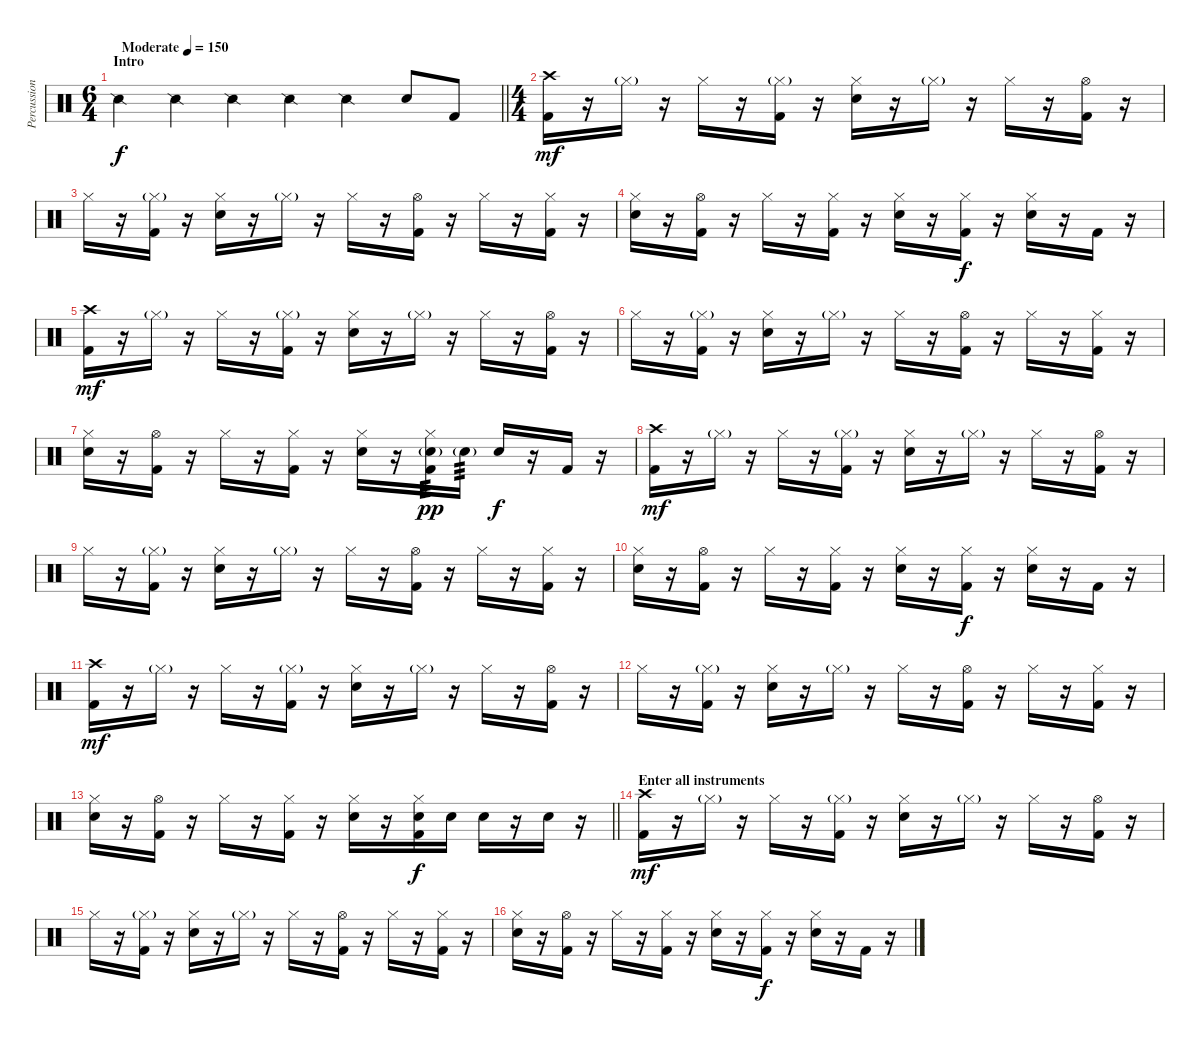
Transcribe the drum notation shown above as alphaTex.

\track ("Percussion" "Percussion") {instrument percussion}
\staff {score}
\articulation defaults
\ts (6 4)
\section ("" "Intro")
\tempo (150 "Moderate")
\clef neutral
\barLineRight lightlight
\ks c "Snare (side stick) 2".4{dy f} "Snare (side stick) 2".4 "Snare (side stick) 2".4 "Snare (side stick) 2".4 "Snare (side stick) 2".4 "Snare (hit) 2".8 "Kick (hit) 2".8
|
\ts (4 4)
("Crash high (hit)" "Kick (hit) 2").16{dy mf} r.16 "Hi-Hat (closed)"{g}.16 r.16 "Hi-Hat (closed)".16 r.16 ("Hi-Hat (closed)"{g} "Kick (hit) 2").16 r.16 ("Hi-Hat (closed)" "Snare (hit) 2").16 r.16 "Hi-Hat (closed)"{g}.16 r.16 "Hi-Hat (closed)".16 r.16 ("Hi-Hat (open)" "Kick (hit) 2").16 r.16 |
"Hi-Hat (closed)".16 r.16 ("Hi-Hat (closed)"{g} "Kick (hit) 2").16 r.16 ("Hi-Hat (closed)" "Snare (hit) 2").16 r.16 "Hi-Hat (closed)"{g}.16 r.16 "Hi-Hat (closed)".16 r.16 ("Hi-Hat (open)" "Kick (hit) 2").16 r.16 "Hi-Hat (closed)".16 r.16 ("Hi-Hat (closed)" "Kick (hit) 2").16 r.16 |
("Hi-Hat (closed)" "Snare (hit) 2").16 r.16 ("Hi-Hat (open)" "Kick (hit) 2").16 r.16 "Hi-Hat (closed)".16 r.16 ("Hi-Hat (closed)" "Kick (hit) 2").16 r.16 ("Hi-Hat (closed)" "Snare (hit) 2").16 r.16 ("Hi-Hat (closed)" "Kick (hit) 2").16{dy f} r.16 ("Hi-Hat (closed)" "Snare (hit) 2").16 r.16 "Kick (hit) 2".16 r.16 |
("Crash high (hit)" "Kick (hit) 2").16{dy mf} r.16 "Hi-Hat (closed)"{g}.16 r.16 "Hi-Hat (closed)".16 r.16 ("Hi-Hat (closed)"{g} "Kick (hit) 2").16 r.16 ("Hi-Hat (closed)" "Snare (hit) 2").16 r.16 "Hi-Hat (closed)"{g}.16 r.16 "Hi-Hat (closed)".16 r.16 ("Hi-Hat (open)" "Kick (hit) 2").16 r.16 |
"Hi-Hat (closed)".16 r.16 ("Hi-Hat (closed)"{g} "Kick (hit) 2").16 r.16 ("Hi-Hat (closed)" "Snare (hit) 2").16 r.16 "Hi-Hat (closed)"{g}.16 r.16 "Hi-Hat (closed)".16 r.16 ("Hi-Hat (open)" "Kick (hit) 2").16 r.16 "Hi-Hat (closed)".16 r.16 ("Hi-Hat (closed)" "Kick (hit) 2").16 r.16 |
("Hi-Hat (closed)" "Snare (hit) 2").16 r.16 ("Hi-Hat (open)" "Kick (hit) 2").16 r.16 "Hi-Hat (closed)".16 r.16 ("Hi-Hat (closed)" "Kick (hit) 2").16 r.16 ("Hi-Hat (closed)" "Snare (hit) 2").16 r.16 ("Hi-Hat (closed)" "Snare (hit) 2"{g} "Kick (hit) 2").16{tp 3 dy pp} "Snare (hit) 2"{g}.16{tp 3} "Snare (hit) 2".16{dy f} r.16 "Kick (hit) 2".16 r.16 |
("Crash high (hit)" "Kick (hit) 2").16{dy mf} r.16 "Hi-Hat (closed)"{g}.16 r.16 "Hi-Hat (closed)".16 r.16 ("Hi-Hat (closed)"{g} "Kick (hit) 2").16 r.16 ("Hi-Hat (closed)" "Snare (hit) 2").16 r.16 "Hi-Hat (closed)"{g}.16 r.16 "Hi-Hat (closed)".16 r.16 ("Hi-Hat (open)" "Kick (hit) 2").16 r.16 |
"Hi-Hat (closed)".16 r.16 ("Hi-Hat (closed)"{g} "Kick (hit) 2").16 r.16 ("Hi-Hat (closed)" "Snare (hit) 2").16 r.16 "Hi-Hat (closed)"{g}.16 r.16 "Hi-Hat (closed)".16 r.16 ("Hi-Hat (open)" "Kick (hit) 2").16 r.16 "Hi-Hat (closed)".16 r.16 ("Hi-Hat (closed)" "Kick (hit) 2").16 r.16 |
("Hi-Hat (closed)" "Snare (hit) 2").16 r.16 ("Hi-Hat (open)" "Kick (hit) 2").16 r.16 "Hi-Hat (closed)".16 r.16 ("Hi-Hat (closed)" "Kick (hit) 2").16 r.16 ("Hi-Hat (closed)" "Snare (hit) 2").16 r.16 ("Hi-Hat (closed)" "Kick (hit) 2").16{dy f} r.16 ("Hi-Hat (closed)" "Snare (hit) 2").16 r.16 "Kick (hit) 2".16 r.16 |
("Crash high (hit)" "Kick (hit) 2").16{dy mf} r.16 "Hi-Hat (closed)"{g}.16 r.16 "Hi-Hat (closed)".16 r.16 ("Hi-Hat (closed)"{g} "Kick (hit) 2").16 r.16 ("Hi-Hat (closed)" "Snare (hit) 2").16 r.16 "Hi-Hat (closed)"{g}.16 r.16 "Hi-Hat (closed)".16 r.16 ("Hi-Hat (open)" "Kick (hit) 2").16 r.16 |
"Hi-Hat (closed)".16 r.16 ("Hi-Hat (closed)"{g} "Kick (hit) 2").16 r.16 ("Hi-Hat (closed)" "Snare (hit) 2").16 r.16 "Hi-Hat (closed)"{g}.16 r.16 "Hi-Hat (closed)".16 r.16 ("Hi-Hat (open)" "Kick (hit) 2").16 r.16 "Hi-Hat (closed)".16 r.16 ("Hi-Hat (closed)" "Kick (hit) 2").16 r.16 |
\barLineRight lightlight
("Hi-Hat (closed)" "Snare (hit) 2").16 r.16 ("Hi-Hat (open)" "Kick (hit) 2").16 r.16 "Hi-Hat (closed)".16 r.16 ("Hi-Hat (closed)" "Kick (hit) 2").16 r.16 ("Hi-Hat (closed)" "Snare (hit) 2").16 r.16 ("Hi-Hat (closed)" "Snare (hit) 2" "Kick (hit) 2").16{dy f} "Snare (hit) 2".16 "Snare (hit) 2".16 r.16 "Snare (hit) 2".16 r.16 |
\section ("" "Enter all instruments")
("Crash high (hit)" "Kick (hit) 2").16{dy mf} r.16 "Hi-Hat (closed)"{g}.16 r.16 "Hi-Hat (closed)".16 r.16 ("Hi-Hat (closed)"{g} "Kick (hit) 2").16 r.16 ("Hi-Hat (closed)" "Snare (hit) 2").16 r.16 "Hi-Hat (closed)"{g}.16 r.16 "Hi-Hat (closed)".16 r.16 ("Hi-Hat (open)" "Kick (hit) 2").16 r.16 |
"Hi-Hat (closed)".16 r.16 ("Hi-Hat (closed)"{g} "Kick (hit) 2").16 r.16 ("Hi-Hat (closed)" "Snare (hit) 2").16 r.16 "Hi-Hat (closed)"{g}.16 r.16 "Hi-Hat (closed)".16 r.16 ("Hi-Hat (open)" "Kick (hit) 2").16 r.16 "Hi-Hat (closed)".16 r.16 ("Hi-Hat (closed)" "Kick (hit) 2").16 r.16 |
("Hi-Hat (closed)" "Snare (hit) 2").16 r.16 ("Hi-Hat (open)" "Kick (hit) 2").16 r.16 "Hi-Hat (closed)".16 r.16 ("Hi-Hat (closed)" "Kick (hit) 2").16 r.16 ("Hi-Hat (closed)" "Snare (hit) 2").16 r.16 ("Hi-Hat (closed)" "Kick (hit) 2").16{dy f} r.16 ("Hi-Hat (closed)" "Snare (hit) 2").16 r.16 "Kick (hit) 2".16 r.16
